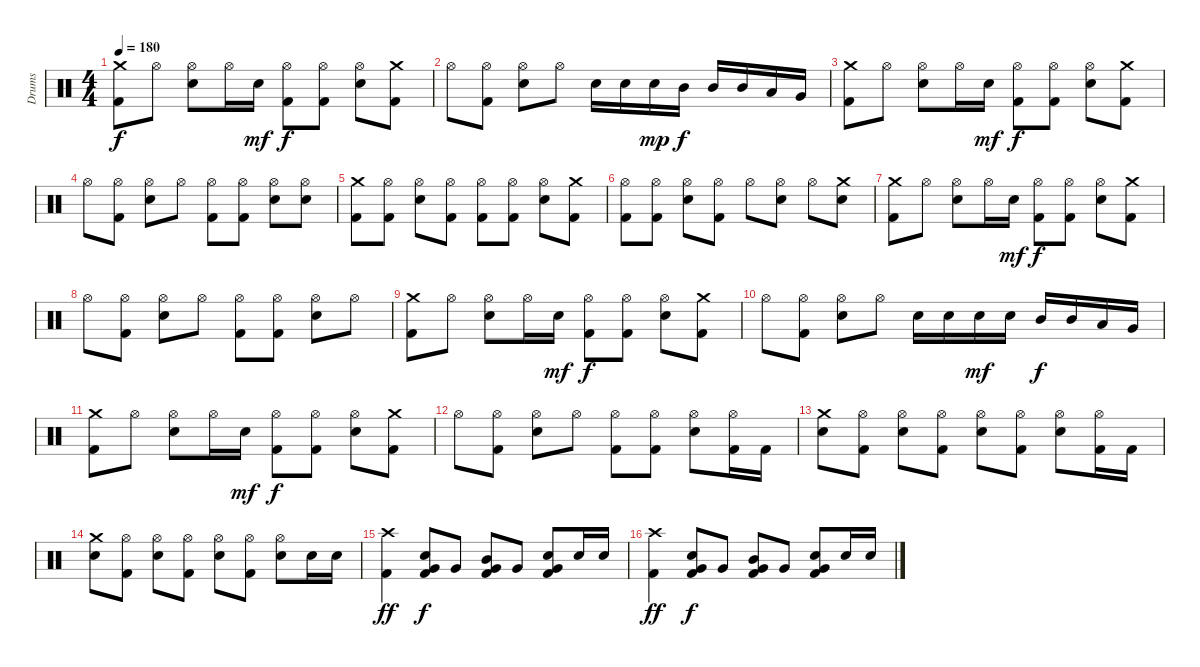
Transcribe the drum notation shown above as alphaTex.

\track ("Drums" "Drums") {instrument percussion}
\staff {score}
\articulation defaults
\ts (4 4)
\tempo 180
\clef neutral
\ks c
("Crash medium (hit)" "Kick (hit) 2").8{dy f} "Hi-Hat (open)".8 ("Hi-Hat (open)" "Electric Snare (hit)").8 "Hi-Hat (open)".16 "Electric Snare (hit)".16{dy mf} ("Hi-Hat (open)" "Kick (hit) 2").8{dy f} ("Hi-Hat (open)" "Kick (hit) 2").8 ("Hi-Hat (open)" "Electric Snare (hit)").8 ("Crash medium (hit)" "Kick (hit) 2").8 |
"Hi-Hat (open)".8 ("Hi-Hat (open)" "Kick (hit) 2").8 ("Hi-Hat (open)" "Electric Snare (hit)").8 "Hi-Hat (open)".8 "Electric Snare (hit)".16 "Electric Snare (hit)".16 "Electric Snare (hit)".16{dy mp} "Mid Tom (hit)".16{dy f} "Mid Tom (hit)".16 "Mid Tom (hit)".16 "Low Tom (hit)".16 "Very Low Tom (hit)".16 |
("Crash medium (hit)" "Kick (hit) 2").8 "Hi-Hat (open)".8 ("Hi-Hat (open)" "Electric Snare (hit)").8 "Hi-Hat (open)".16 "Electric Snare (hit)".16{dy mf} ("Hi-Hat (open)" "Kick (hit) 2").8{dy f} ("Hi-Hat (open)" "Kick (hit) 2").8 ("Hi-Hat (open)" "Electric Snare (hit)").8 ("Crash medium (hit)" "Kick (hit) 2").8 |
"Hi-Hat (open)".8 ("Hi-Hat (open)" "Kick (hit) 2").8 ("Hi-Hat (open)" "Electric Snare (hit)").8 "Hi-Hat (open)".8 ("Hi-Hat (open)" "Kick (hit) 2").8 ("Hi-Hat (open)" "Kick (hit) 2").8 ("Hi-Hat (open)" "Electric Snare (hit)").8 ("Hi-Hat (open)" "Electric Snare (hit)").8 |
("Crash medium (hit)" "Kick (hit) 2").8 ("Hi-Hat (open)" "Kick (hit) 2").8 ("Hi-Hat (open)" "Electric Snare (hit)").8 ("Hi-Hat (open)" "Kick (hit) 2").8 ("Hi-Hat (open)" "Kick (hit) 2").8 ("Hi-Hat (open)" "Kick (hit) 2").8 ("Hi-Hat (open)" "Electric Snare (hit)").8 ("Crash medium (hit)" "Kick (hit) 2").8 |
("Hi-Hat (open)" "Kick (hit) 2").8 ("Hi-Hat (open)" "Kick (hit) 2").8 ("Hi-Hat (open)" "Electric Snare (hit)").8 ("Hi-Hat (open)" "Kick (hit) 2").8 "Hi-Hat (open)".8 ("Hi-Hat (open)" "Electric Snare (hit)").8 "Hi-Hat (open)".8 ("Crash medium (hit)" "Electric Snare (hit)").8 |
("Crash medium (hit)" "Kick (hit) 2").8 "Hi-Hat (open)".8 ("Hi-Hat (open)" "Electric Snare (hit)").8 "Hi-Hat (open)".16 "Electric Snare (hit)".16{dy mf} ("Hi-Hat (open)" "Kick (hit) 2").8{dy f} ("Hi-Hat (open)" "Kick (hit) 2").8 ("Hi-Hat (open)" "Electric Snare (hit)").8 ("Crash medium (hit)" "Kick (hit) 2").8 |
"Hi-Hat (open)".8 ("Hi-Hat (open)" "Kick (hit) 2").8 ("Hi-Hat (open)" "Electric Snare (hit)").8 "Hi-Hat (open)".8 ("Hi-Hat (open)" "Kick (hit) 2").8 ("Hi-Hat (open)" "Kick (hit) 2").8 ("Hi-Hat (open)" "Electric Snare (hit)").8 "Hi-Hat (open)".8 |
("Crash medium (hit)" "Kick (hit) 2").8 "Hi-Hat (open)".8 ("Hi-Hat (open)" "Electric Snare (hit)").8 "Hi-Hat (open)".16 "Electric Snare (hit)".16{dy mf} ("Hi-Hat (open)" "Kick (hit) 2").8{dy f} ("Hi-Hat (open)" "Kick (hit) 2").8 ("Hi-Hat (open)" "Electric Snare (hit)").8 ("Crash medium (hit)" "Kick (hit) 2").8 |
"Hi-Hat (open)".8 ("Hi-Hat (open)" "Kick (hit) 2").8 ("Hi-Hat (open)" "Electric Snare (hit)").8 "Hi-Hat (open)".8 "Electric Snare (hit)".16 "Electric Snare (hit)".16 "Electric Snare (hit)".16{dy mf} "Electric Snare (hit)".16 "Mid Tom (hit)".16{dy f} "Mid Tom (hit)".16 "Low Tom (hit)".16 "Very Low Tom (hit)".16 |
("Crash medium (hit)" "Kick (hit) 2").8 "Hi-Hat (open)".8 ("Hi-Hat (open)" "Electric Snare (hit)").8 "Hi-Hat (open)".16 "Electric Snare (hit)".16{dy mf} ("Hi-Hat (open)" "Kick (hit) 2").8{dy f} ("Hi-Hat (open)" "Kick (hit) 2").8 ("Hi-Hat (open)" "Electric Snare (hit)").8 ("Crash medium (hit)" "Kick (hit) 2").8 |
"Hi-Hat (open)".8 ("Hi-Hat (open)" "Kick (hit) 2").8 ("Hi-Hat (open)" "Electric Snare (hit)").8 "Hi-Hat (open)".8 ("Hi-Hat (open)" "Kick (hit) 2").8 ("Hi-Hat (open)" "Kick (hit) 2").8 ("Hi-Hat (open)" "Electric Snare (hit)").8 ("Hi-Hat (open)" "Kick (hit) 2").16 "Kick (hit) 2".16 |
("Crash medium (hit)" "Electric Snare (hit)").8 ("Hi-Hat (open)" "Kick (hit) 2").8 ("Hi-Hat (open)" "Electric Snare (hit)").8 ("Hi-Hat (open)" "Kick (hit) 2").8 ("Hi-Hat (open)" "Electric Snare (hit)").8 ("Hi-Hat (open)" "Kick (hit) 2").8 ("Hi-Hat (open)" "Electric Snare (hit)").8 ("Hi-Hat (open)" "Kick (hit) 2").16 "Kick (hit) 2".16 |
("Crash medium (hit)" "Electric Snare (hit)").8 ("Hi-Hat (open)" "Kick (hit) 2").8 ("Hi-Hat (open)" "Electric Snare (hit)").8 ("Hi-Hat (open)" "Kick (hit) 2").8 ("Hi-Hat (open)" "Electric Snare (hit)").8 ("Hi-Hat (open)" "Kick (hit) 2").8 ("Hi-Hat (open)" "Electric Snare (hit)").8 "Electric Snare (hit)".16 "Electric Snare (hit)".16 |
("Crash high (hit)" "Kick (hit) 2").4{dy ff} ("Very Low Tom (hit)" "Electric Snare (hit)" "Kick (hit) 2").8{dy f} "Very Low Tom (hit)".8 ("Mid Tom (hit)" "Very Low Tom (hit)" "Kick (hit) 2").8 "Very Low Tom (hit)".8 ("Very Low Tom (hit)" "Electric Snare (hit)" "Kick (hit) 2").8 "Electric Snare (hit)".16 "Electric Snare (hit)".16 |
("Crash high (hit)" "Kick (hit) 2").4{dy ff} ("Very Low Tom (hit)" "Electric Snare (hit)" "Kick (hit) 2").8{dy f} "Very Low Tom (hit)".8 ("Mid Tom (hit)" "Very Low Tom (hit)" "Kick (hit) 2").8 "Very Low Tom (hit)".8 ("Very Low Tom (hit)" "Electric Snare (hit)" "Kick (hit) 2").8 "Electric Snare (hit)".16 "Electric Snare (hit)".16
